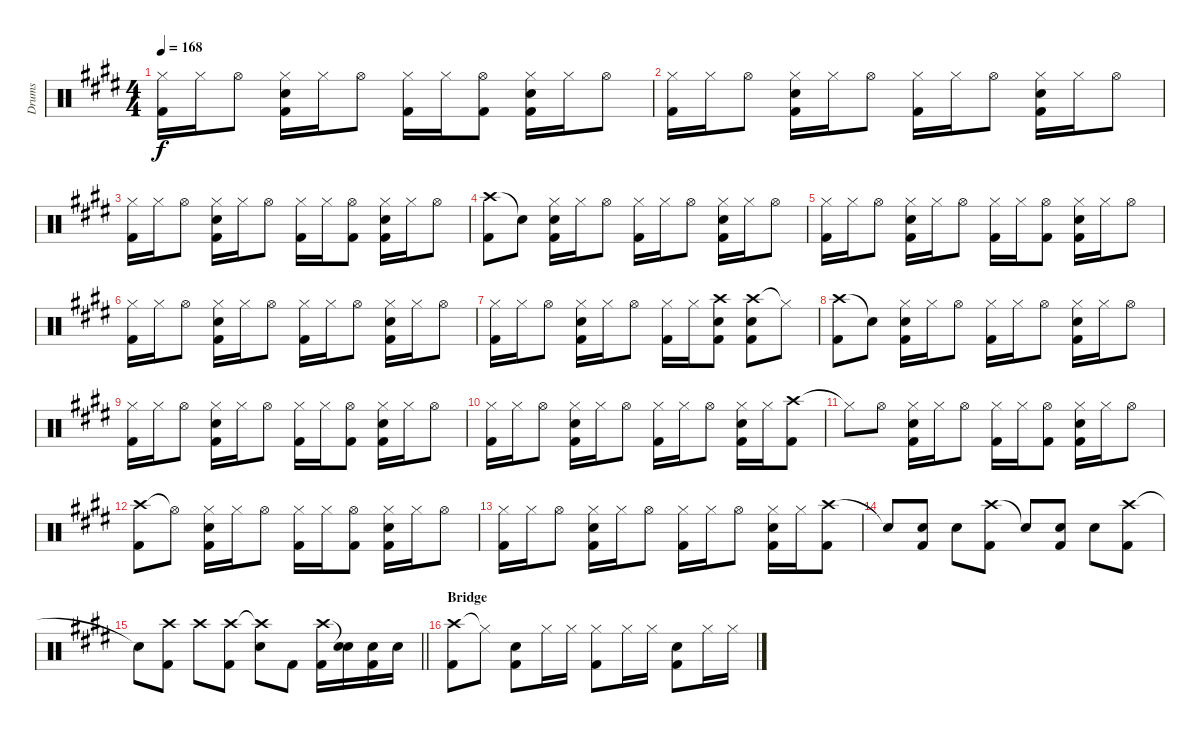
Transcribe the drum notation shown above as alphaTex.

\track ("Drums" "Drums") {instrument percussion}
\staff {score}
\articulation defaults
\ts (4 4)
\tempo 168
\clef neutral
\ks e
("Hi-Hat (closed)" "Kick (hit) 2").16{dy f} "Hi-Hat (closed)".16 "Hi-Hat (open)".8 ("Hi-Hat (closed)" "Snare (hit) 2" "Kick (hit) 2").16 "Hi-Hat (closed)".16 "Hi-Hat (open)".8 ("Hi-Hat (closed)" "Kick (hit) 2").16 "Hi-Hat (closed)".16 ("Hi-Hat (open)" "Kick (hit) 2").8 ("Hi-Hat (closed)" "Snare (hit) 2" "Kick (hit) 2").16 "Hi-Hat (closed)".16 "Hi-Hat (open)".8 |
("Hi-Hat (closed)" "Kick (hit) 2").16 "Hi-Hat (closed)".16 "Hi-Hat (open)".8 ("Hi-Hat (closed)" "Snare (hit) 2" "Kick (hit) 2").16 "Hi-Hat (closed)".16 "Hi-Hat (open)".8 ("Hi-Hat (closed)" "Kick (hit) 2").16 "Hi-Hat (closed)".16 "Hi-Hat (open)".8 ("Hi-Hat (closed)" "Snare (hit) 2" "Kick (hit) 2").16 "Hi-Hat (closed)".16 "Hi-Hat (open)".8 |
("Hi-Hat (closed)" "Kick (hit) 2").16 "Hi-Hat (closed)".16 "Hi-Hat (open)".8 ("Hi-Hat (closed)" "Snare (hit) 2" "Kick (hit) 2").16 "Hi-Hat (closed)".16 "Hi-Hat (open)".8 ("Hi-Hat (closed)" "Kick (hit) 2").16 "Hi-Hat (closed)".16 ("Hi-Hat (open)" "Kick (hit) 2").8 ("Hi-Hat (closed)" "Snare (hit) 2" "Kick (hit) 2").16 "Hi-Hat (closed)".16 "Hi-Hat (open)".8 |
("Crash high (hit)" "Kick (hit) 2").8 "Snare (hit)"{t}.8 ("Hi-Hat (closed)" "Snare (hit) 2" "Kick (hit) 2").16 "Hi-Hat (closed)".16 "Hi-Hat (open)".8 ("Hi-Hat (closed)" "Kick (hit) 2").16 "Hi-Hat (closed)".16 "Hi-Hat (open)".8 ("Hi-Hat (closed)" "Snare (hit) 2" "Kick (hit) 2").16 "Hi-Hat (closed)".16 "Hi-Hat (open)".8 |
("Hi-Hat (closed)" "Kick (hit) 2").16 "Hi-Hat (closed)".16 "Hi-Hat (open)".8 ("Hi-Hat (closed)" "Snare (hit) 2" "Kick (hit) 2").16 "Hi-Hat (closed)".16 "Hi-Hat (open)".8 ("Hi-Hat (closed)" "Kick (hit) 2").16 "Hi-Hat (closed)".16 ("Hi-Hat (open)" "Kick (hit) 2").8 ("Hi-Hat (closed)" "Snare (hit) 2" "Kick (hit) 2").16 "Hi-Hat (closed)".16 "Hi-Hat (open)".8 |
("Hi-Hat (closed)" "Kick (hit) 2").16 "Hi-Hat (closed)".16 "Hi-Hat (open)".8 ("Hi-Hat (closed)" "Snare (hit) 2" "Kick (hit) 2").16 "Hi-Hat (closed)".16 "Hi-Hat (open)".8 ("Hi-Hat (closed)" "Kick (hit) 2").16 "Hi-Hat (closed)".16 "Hi-Hat (open)".8 ("Hi-Hat (closed)" "Snare (hit) 2" "Kick (hit) 2").16 "Hi-Hat (closed)".16 "Hi-Hat (open)".8 |
("Hi-Hat (closed)" "Kick (hit) 2").16 "Hi-Hat (closed)".16 "Hi-Hat (open)".8 ("Hi-Hat (closed)" "Snare (hit) 2" "Kick (hit) 2").16 "Hi-Hat (closed)".16 "Hi-Hat (open)".8 ("Hi-Hat (closed)" "Kick (hit) 2").16 "Hi-Hat (closed)".16 ("Crash high (hit)" "Snare (hit) 2" "Kick (hit) 2").8 ("Crash high (hit)" "Snare (hit) 2" "Kick (hit) 2").8 "Hi-Hat (closed)"{t}.8 |
("Crash high (hit)" "Kick (hit) 2").8 "Snare (hit)"{t}.8 ("Hi-Hat (closed)" "Snare (hit) 2" "Kick (hit) 2").16 "Hi-Hat (closed)".16 "Hi-Hat (open)".8 ("Hi-Hat (closed)" "Kick (hit) 2").16 "Hi-Hat (closed)".16 "Hi-Hat (open)".8 ("Hi-Hat (closed)" "Snare (hit) 2" "Kick (hit) 2").16 "Hi-Hat (closed)".16 "Hi-Hat (open)".8 |
("Hi-Hat (closed)" "Kick (hit) 2").16 "Hi-Hat (closed)".16 "Hi-Hat (open)".8 ("Hi-Hat (closed)" "Snare (hit) 2" "Kick (hit) 2").16 "Hi-Hat (closed)".16 "Hi-Hat (open)".8 ("Hi-Hat (closed)" "Kick (hit) 2").16 "Hi-Hat (closed)".16 ("Hi-Hat (open)" "Kick (hit) 2").8 ("Hi-Hat (closed)" "Snare (hit) 2" "Kick (hit) 2").16 "Hi-Hat (closed)".16 "Hi-Hat (open)".8 |
("Hi-Hat (closed)" "Kick (hit) 2").16 "Hi-Hat (closed)".16 "Hi-Hat (open)".8 ("Hi-Hat (closed)" "Snare (hit) 2" "Kick (hit) 2").16 "Hi-Hat (closed)".16 "Hi-Hat (open)".8 ("Hi-Hat (closed)" "Kick (hit) 2").16 "Hi-Hat (closed)".16 "Hi-Hat (open)".8 ("Hi-Hat (closed)" "Snare (hit) 2" "Kick (hit) 2").16 "Hi-Hat (closed)".16 ("Crash high (hit)" "Kick (hit) 2").8 |
"Hi-Hat (closed)"{t}.8 "Hi-Hat (open)".8 ("Hi-Hat (closed)" "Snare (hit) 2" "Kick (hit) 2").16 "Hi-Hat (closed)".16 "Hi-Hat (open)".8 ("Hi-Hat (closed)" "Kick (hit) 2").16 "Hi-Hat (closed)".16 ("Hi-Hat (open)" "Kick (hit) 2").8 ("Hi-Hat (closed)" "Snare (hit) 2" "Kick (hit) 2").16 "Hi-Hat (closed)".16 "Hi-Hat (open)".8 |
("Crash high (hit)" "Kick (hit) 2").8 "Hi-Hat (open)"{t}.8 ("Hi-Hat (closed)" "Snare (hit) 2" "Kick (hit) 2").16 "Hi-Hat (closed)".16 "Hi-Hat (open)".8 ("Hi-Hat (closed)" "Kick (hit) 2").16 "Hi-Hat (closed)".16 ("Hi-Hat (open)" "Kick (hit) 2").8 ("Hi-Hat (closed)" "Snare (hit) 2" "Kick (hit) 2").16 "Hi-Hat (closed)".16 "Hi-Hat (open)".8 |
("Hi-Hat (closed)" "Kick (hit) 2").16 "Hi-Hat (closed)".16 "Hi-Hat (open)".8 ("Hi-Hat (closed)" "Snare (hit) 2" "Kick (hit) 2").16 "Hi-Hat (closed)".16 "Hi-Hat (open)".8 ("Hi-Hat (closed)" "Kick (hit) 2").16 "Hi-Hat (closed)".16 "Hi-Hat (open)".8 ("Hi-Hat (closed)" "Snare (hit) 2" "Kick (hit) 2").16 "Hi-Hat (closed)".16 ("Crash high (hit)" "Kick (hit) 2").8 |
"Snare (hit)"{t}.8 ("Snare (hit) 2" "Kick (hit) 2").8 "Snare (hit) 2".8 ("Crash high (hit)" "Kick (hit) 2").8 "Snare (hit)"{t}.8 ("Snare (hit) 2" "Kick (hit) 2").8 "Snare (hit) 2".8 ("Crash high (hit)" "Kick (hit) 2").8 |
\barLineRight lightlight "Snare (hit)"{t}.8
("Crash high (hit)" "Kick (hit) 2").8 "Crash high (hit)".8 ("Crash high (hit)" "Kick (hit) 2").8 ("Crash high (hit)"{t} "Snare (hit) 2").8 "Kick (hit) 2".8 ("Crash high (hit)" "Kick (hit) 2").16 ("Snare (hit)"{t} "Snare (hit) 2").16 ("Snare (hit) 2" "Kick (hit) 2").16 "Snare (hit) 2".16 |
\section ("" "Bridge")
("Crash high (hit)" "Kick (hit) 2").8 "Hi-Hat (closed)"{t}.8 ("Snare (hit) 2" "Kick (hit) 2").8 "Hi-Hat (closed)".16 "Hi-Hat (closed)".16 ("Hi-Hat (closed)" "Kick (hit) 2").8 "Hi-Hat (closed)".16 "Hi-Hat (closed)".16 ("Snare (hit) 2" "Kick (hit) 2").8 "Hi-Hat (closed)".16 "Hi-Hat (closed)".16
